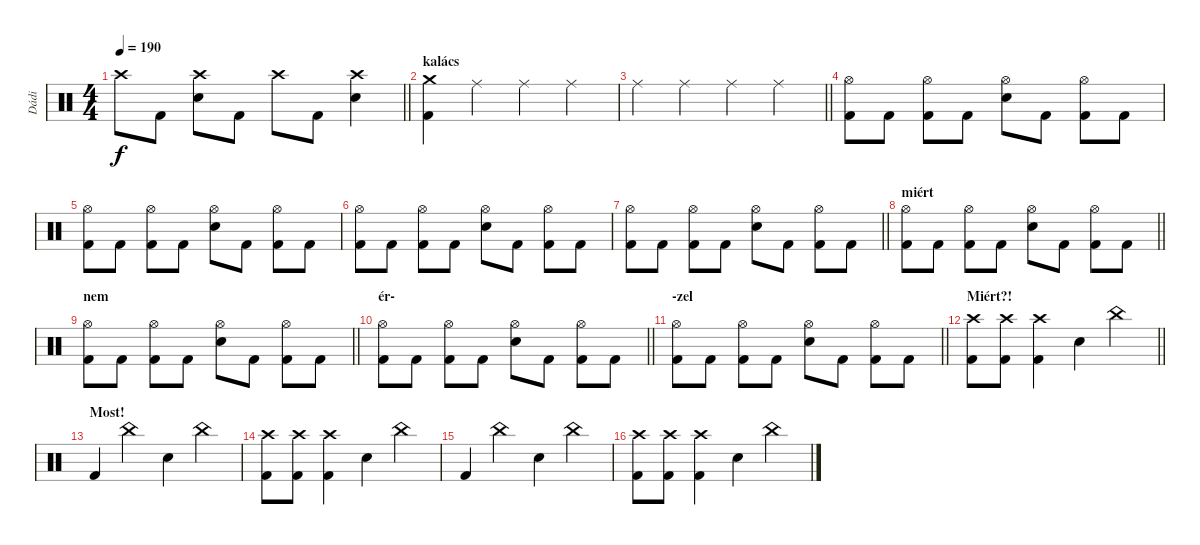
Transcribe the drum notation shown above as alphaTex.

\track ("Dádi" "Dádi") {instrument percussion}
\staff {score}
\articulation defaults
\ts (4 4)
\tempo 190
\clef neutral
\barLineRight lightlight
\ks c "Crash high (hit)".8{dy f} "Kick (hit) 2".8
("Crash high (hit)" "Electric Snare (hit)").8 "Kick (hit) 2".8 "Crash high (hit)".8 "Kick (hit) 2".8 ("Electric Snare (hit)" "Crash high (hit)").4 |
\section ("" "kalács")
("Kick (hit) 2" "Crash medium (hit)").4 "Ride (middle)".4 "Ride (middle)".4 "Ride (middle)".4 |
\barLineRight lightlight "Ride (middle)".4 "Ride (middle)".4 "Ride (middle)".4 "Ride (middle)".4
|
\section ("" "")
("Kick (hit) 2" "Hi-Hat (open)").8 "Kick (hit) 2".8 ("Kick (hit) 2" "Hi-Hat (open)").8 "Kick (hit) 2".8 ("Electric Snare (hit)" "Hi-Hat (open)").8 "Kick (hit) 2".8 ("Kick (hit) 2" "Hi-Hat (open)").8 "Kick (hit) 2".8 |
("Kick (hit) 2" "Hi-Hat (open)").8 "Kick (hit) 2".8 ("Hi-Hat (open)" "Kick (hit) 2").8 "Kick (hit) 2".8 ("Electric Snare (hit)" "Hi-Hat (open)").8 "Kick (hit) 2".8 ("Kick (hit) 2" "Hi-Hat (open)").8 "Kick (hit) 2".8 |
("Kick (hit) 2" "Hi-Hat (open)").8 "Kick (hit) 2".8 ("Kick (hit) 2" "Hi-Hat (open)").8 "Kick (hit) 2".8 ("Electric Snare (hit)" "Hi-Hat (open)").8 "Kick (hit) 2".8 ("Kick (hit) 2" "Hi-Hat (open)").8 "Kick (hit) 2".8 |
\barLineRight lightlight
("Kick (hit) 2" "Hi-Hat (open)").8 "Kick (hit) 2".8 ("Kick (hit) 2" "Hi-Hat (open)").8 "Kick (hit) 2".8 ("Electric Snare (hit)" "Hi-Hat (open)").8 "Kick (hit) 2".8 ("Kick (hit) 2" "Hi-Hat (open)").8 "Kick (hit) 2".8 |
\section ("" "miért")
\barLineRight lightlight
("Kick (hit) 2" "Hi-Hat (open)").8 "Kick (hit) 2".8 ("Kick (hit) 2" "Hi-Hat (open)").8 "Kick (hit) 2".8 ("Electric Snare (hit)" "Hi-Hat (open)").8 "Kick (hit) 2".8 ("Kick (hit) 2" "Hi-Hat (open)").8 "Kick (hit) 2".8 |
\section ("" "nem")
\barLineRight lightlight
("Kick (hit) 2" "Hi-Hat (open)").8 "Kick (hit) 2".8 ("Kick (hit) 2" "Hi-Hat (open)").8 "Kick (hit) 2".8 ("Electric Snare (hit)" "Hi-Hat (open)").8 "Kick (hit) 2".8 ("Kick (hit) 2" "Hi-Hat (open)").8 "Kick (hit) 2".8 |
\section ("" "ér-")
\barLineRight lightlight
("Kick (hit) 2" "Hi-Hat (open)").8 "Kick (hit) 2".8 ("Hi-Hat (open)" "Kick (hit) 2").8 "Kick (hit) 2".8 ("Electric Snare (hit)" "Hi-Hat (open)").8 "Kick (hit) 2".8 ("Kick (hit) 2" "Hi-Hat (open)").8 "Kick (hit) 2".8 |
\section ("" "-zel")
\barLineRight lightlight
("Kick (hit) 2" "Hi-Hat (open)").8 "Kick (hit) 2".8 ("Kick (hit) 2" "Hi-Hat (open)").8 "Kick (hit) 2".8 ("Electric Snare (hit)" "Hi-Hat (open)").8 "Kick (hit) 2".8 ("Kick (hit) 2" "Hi-Hat (open)").8 "Kick (hit) 2".8 |
\section ("" "Miért?!")
\barLineRight lightlight
("Kick (hit) 2" "Crash high (hit)").8 ("Kick (hit) 2" "Crash high (hit)").8 ("Kick (hit) 2" "Crash high (hit)").4 "Electric Snare (hit)".4 "China (hit)".4 |
\section ("" "Most!")
"Kick (hit) 2".4 "China (hit)".4 "Electric Snare (hit)".4 "China (hit)".4 |
("Kick (hit) 2" "Crash high (hit)").8 ("Kick (hit) 2" "Crash high (hit)").8 ("Kick (hit) 2" "Crash high (hit)").4 "Electric Snare (hit)".4 "China (hit)".4 |
"Kick (hit) 2".4 "China (hit)".4 "Electric Snare (hit)".4 "China (hit)".4 |
("Kick (hit) 2" "Crash high (hit)").8 ("Kick (hit) 2" "Crash high (hit)").8 ("Kick (hit) 2" "Crash high (hit)").4 "Electric Snare (hit)".4 "China (hit)".4
